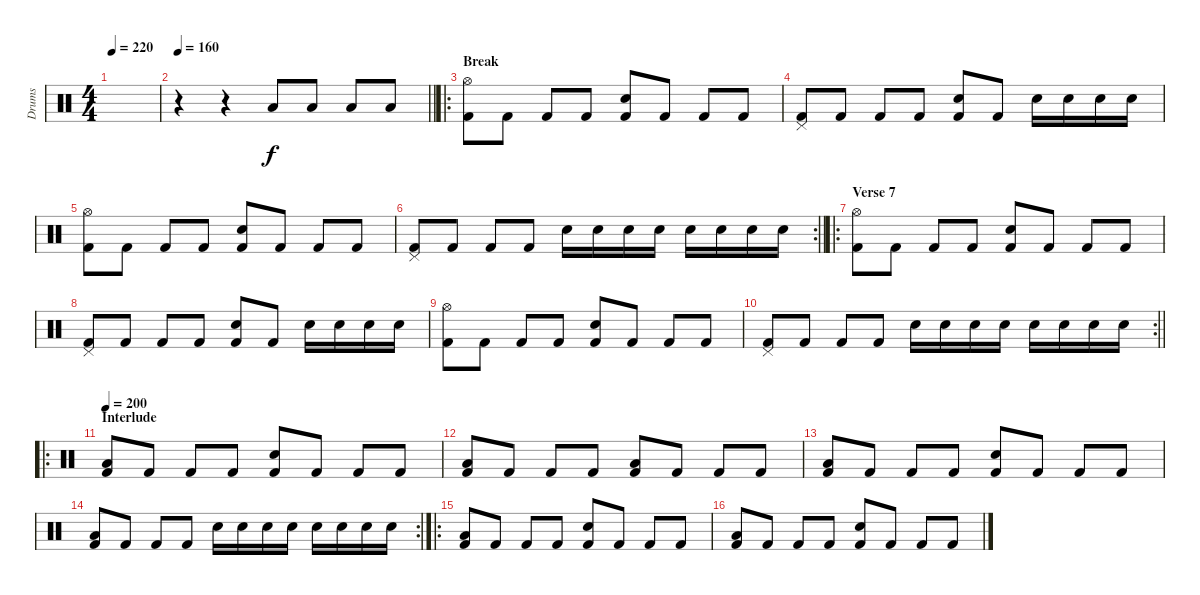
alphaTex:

\track ("Drums" "Drums") {instrument percussion}
\staff {score}
\articulation defaults
\ts (4 4)
\tempo 220
\clef neutral
\ks c
|
\tempo 160
\barLineRight lightlight
r.4 r.4 "Low Tom (hit)".8 "Low Tom (hit)".8 "Low Tom (hit)".8 "Low Tom (hit)".8 |
\ro
\section ("" "Break")
("Hi-Hat (open)" "Kick (hit) 2").8 "Kick (hit) 2".8 "Kick (hit) 2".8 "Kick (hit) 2".8 ("Snare (hit) 2" "Kick (hit) 2").8 "Kick (hit) 2".8 "Kick (hit) 2".8 "Kick (hit) 2".8 |
("Pedal Hi-Hat (hit)" "Kick (hit) 2").8 "Kick (hit) 2".8 "Kick (hit) 2".8 "Kick (hit) 2".8 ("Snare (hit) 2" "Kick (hit) 2").8 "Kick (hit) 2".8 "Snare (hit) 2".16 "Snare (hit) 2".16 "Snare (hit) 2".16 "Snare (hit) 2".16 |
("Hi-Hat (open)" "Kick (hit) 2").8 "Kick (hit) 2".8 "Kick (hit) 2".8 "Kick (hit) 2".8 ("Snare (hit) 2" "Kick (hit) 2").8 "Kick (hit) 2".8 "Kick (hit) 2".8 "Kick (hit) 2".8 |
\rc 2
\barLineRight lightlight
("Pedal Hi-Hat (hit)" "Kick (hit) 2").8 "Kick (hit) 2".8 "Kick (hit) 2".8 "Kick (hit) 2".8 "Snare (hit) 2".16 "Snare (hit) 2".16 "Snare (hit) 2".16 "Snare (hit) 2".16 "Snare (hit) 2".16 "Snare (hit) 2".16 "Snare (hit) 2".16 "Snare (hit) 2".16 |
\ro
\section ("" "Verse 7")
("Hi-Hat (open)" "Kick (hit) 2").8 "Kick (hit) 2".8 "Kick (hit) 2".8 "Kick (hit) 2".8 ("Snare (hit) 2" "Kick (hit) 2").8 "Kick (hit) 2".8 "Kick (hit) 2".8 "Kick (hit) 2".8 |
("Pedal Hi-Hat (hit)" "Kick (hit) 2").8 "Kick (hit) 2".8 "Kick (hit) 2".8 "Kick (hit) 2".8 ("Snare (hit) 2" "Kick (hit) 2").8 "Kick (hit) 2".8 "Snare (hit) 2".16 "Snare (hit) 2".16 "Snare (hit) 2".16 "Snare (hit) 2".16 |
("Hi-Hat (open)" "Kick (hit) 2").8 "Kick (hit) 2".8 "Kick (hit) 2".8 "Kick (hit) 2".8 ("Snare (hit) 2" "Kick (hit) 2").8 "Kick (hit) 2".8 "Kick (hit) 2".8 "Kick (hit) 2".8 |
\rc 2
\barLineRight lightlight
("Pedal Hi-Hat (hit)" "Kick (hit) 2").8 "Kick (hit) 2".8 "Kick (hit) 2".8 "Kick (hit) 2".8 "Snare (hit) 2".16 "Snare (hit) 2".16 "Snare (hit) 2".16 "Snare (hit) 2".16 "Snare (hit) 2".16 "Snare (hit) 2".16 "Snare (hit) 2".16 "Snare (hit) 2".16 |
\ro
\section ("" "Interlude")
\tempo 200
("Low Tom (hit)" "Kick (hit) 2").8 "Kick (hit) 2".8 "Kick (hit) 2".8 "Kick (hit) 2".8 ("Electric Snare (hit)" "Kick (hit) 2").8 "Kick (hit) 2".8 "Kick (hit) 2".8 "Kick (hit) 2".8 |
("Low Tom (hit)" "Kick (hit) 2").8 "Kick (hit) 2".8 "Kick (hit) 2".8 "Kick (hit) 2".8 ("Low Tom (hit)" "Kick (hit) 2").8 "Kick (hit) 2".8 "Kick (hit) 2".8 "Kick (hit) 2".8 |
("Low Tom (hit)" "Kick (hit) 2").8 "Kick (hit) 2".8 "Kick (hit) 2".8 "Kick (hit) 2".8 ("Electric Snare (hit)" "Kick (hit) 2").8 "Kick (hit) 2".8 "Kick (hit) 2".8 "Kick (hit) 2".8 |
\rc 2
("Low Tom (hit)" "Kick (hit) 2").8 "Kick (hit) 2".8 "Kick (hit) 2".8 "Kick (hit) 2".8 "Electric Snare (hit)".16 "Electric Snare (hit)".16 "Electric Snare (hit)".16 "Electric Snare (hit)".16 "Electric Snare (hit)".16 "Electric Snare (hit)".16 "Electric Snare (hit)".16 "Electric Snare (hit)".16 |
\ro
("Low Tom (hit)" "Kick (hit) 2").8 "Kick (hit) 2".8 "Kick (hit) 2".8 "Kick (hit) 2".8 ("Electric Snare (hit)" "Kick (hit) 2").8 "Kick (hit) 2".8 "Kick (hit) 2".8 "Kick (hit) 2".8 |
("Low Tom (hit)" "Kick (hit) 2").8 "Kick (hit) 2".8 "Kick (hit) 2".8 "Kick (hit) 2".8 ("Electric Snare (hit)" "Kick (hit) 2").8 "Kick (hit) 2".8 "Kick (hit) 2".8 "Kick (hit) 2".8
